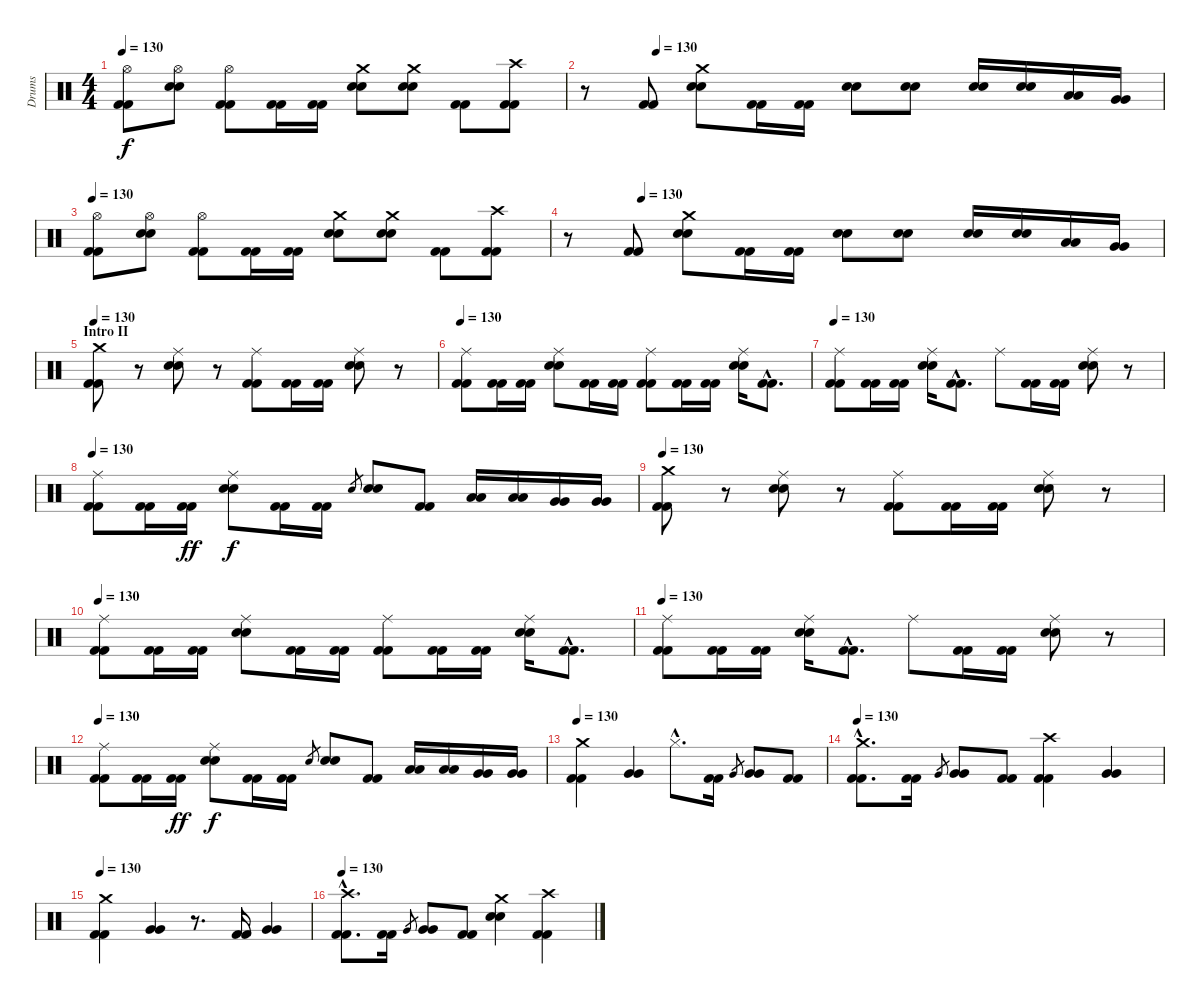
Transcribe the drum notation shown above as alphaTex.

\track ("Drums" "Drums") {instrument percussion}
\staff {score}
\articulation defaults
\ts (4 4)
\tempo 130
\clef neutral
\ks c
("Hi-Hat (open)" "Kick (hit) 2" "Kick (hit) 2").8{dy f} ("Hi-Hat (open)" "Snare (hit) 2" "Snare (hit) 2").8 ("Hi-Hat (open)" "Kick (hit) 2" "Kick (hit) 2").8 ("Kick (hit) 2" "Kick (hit) 2").16 ("Kick (hit) 2" "Kick (hit) 2").16 ("Crash medium (hit)" "Snare (hit) 2" "Snare (hit) 2").8 ("Crash medium (hit)" "Snare (hit) 2" "Snare (hit) 2").8 ("Kick (hit) 2" "Kick (hit) 2").8 ("Crash high (hit)" "Kick (hit) 2" "Kick (hit) 2").8 |
\tempo (130 0.125)
r.8 ("Kick (hit) 2" "Kick (hit) 2").8 ("Crash medium (hit)" "Snare (hit) 2" "Snare (hit) 2").8 ("Kick (hit) 2" "Kick (hit) 2").16 ("Kick (hit) 2" "Kick (hit) 2").16 ("Snare (hit) 2" "Snare (hit) 2").8 ("Snare (hit) 2" "Snare (hit) 2").8 ("Snare (hit) 2" "Snare (hit) 2").16 ("Snare (hit) 2" "Snare (hit) 2").16 ("Low Tom (hit)" "Low Tom (hit)").16 ("Very Low Tom (hit)" "Very Low Tom (hit)").16 |
\tempo 130
("Hi-Hat (open)" "Kick (hit) 2" "Kick (hit) 2").8 ("Hi-Hat (open)" "Snare (hit) 2" "Snare (hit) 2").8 ("Hi-Hat (open)" "Kick (hit) 2" "Kick (hit) 2").8 ("Kick (hit) 2" "Kick (hit) 2").16 ("Kick (hit) 2" "Kick (hit) 2").16 ("Crash medium (hit)" "Snare (hit) 2" "Snare (hit) 2").8 ("Crash medium (hit)" "Snare (hit) 2" "Snare (hit) 2").8 ("Kick (hit) 2" "Kick (hit) 2").8 ("Crash high (hit)" "Kick (hit) 2" "Kick (hit) 2").8 |
\tempo (130 0.125)
r.8 ("Kick (hit) 2" "Kick (hit) 2").8 ("Crash medium (hit)" "Snare (hit) 2" "Snare (hit) 2").8 ("Kick (hit) 2" "Kick (hit) 2").16 ("Kick (hit) 2" "Kick (hit) 2").16 ("Snare (hit) 2" "Snare (hit) 2").8 ("Snare (hit) 2" "Snare (hit) 2").8 ("Snare (hit) 2" "Snare (hit) 2").16 ("Snare (hit) 2" "Snare (hit) 2").16 ("Low Tom (hit)" "Low Tom (hit)").16 ("Very Low Tom (hit)" "Very Low Tom (hit)").16 |
\section ("" "Intro II")
\tempo 130
("Crash medium (hit)" "Kick (hit) 2" "Kick (hit) 2").8 r.8 ("Ride (middle)" "Snare (hit) 2" "Snare (hit) 2").8 r.8 ("Ride (middle)" "Kick (hit) 2" "Kick (hit) 2").8 ("Kick (hit) 2" "Kick (hit) 2").16 ("Kick (hit) 2" "Kick (hit) 2").16 ("Ride (middle)" "Snare (hit) 2" "Snare (hit) 2").8 r.8 |
\tempo 130
("Ride (middle)" "Kick (hit) 2" "Kick (hit) 2").8 ("Kick (hit) 2" "Kick (hit) 2").16 ("Kick (hit) 2" "Kick (hit) 2").16 ("Ride (middle)" "Snare (hit) 2" "Snare (hit) 2").8 ("Kick (hit) 2" "Kick (hit) 2").16 ("Kick (hit) 2" "Kick (hit) 2").16 ("Ride (middle)" "Kick (hit) 2" "Kick (hit) 2").8 ("Kick (hit) 2" "Kick (hit) 2").16 ("Kick (hit) 2" "Kick (hit) 2").16 ("Ride (middle)" "Snare (hit) 2" "Snare (hit) 2").16 ("Kick (hit) 2"{hac} "Kick (hit) 2"{hac}).8{d} |
\tempo 130
("Ride (middle)" "Kick (hit) 2" "Kick (hit) 2").8 ("Kick (hit) 2" "Kick (hit) 2").16 ("Kick (hit) 2" "Kick (hit) 2").16 ("Ride (middle)" "Snare (hit) 2" "Snare (hit) 2").16 ("Kick (hit) 2"{hac} "Kick (hit) 2"{hac}).8{d} "Ride (middle)".8 ("Kick (hit) 2" "Kick (hit) 2").16 ("Kick (hit) 2" "Kick (hit) 2").16 ("Ride (middle)" "Snare (hit) 2" "Snare (hit) 2").8 r.8 |
\tempo 130
("Ride (middle)" "Kick (hit) 2" "Kick (hit) 2").8 ("Kick (hit) 2" "Kick (hit) 2").16 ("Kick (hit) 2" "Kick (hit) 2").16{dy ff} ("Ride (middle)" "Snare (hit) 2" "Snare (hit) 2").8{dy f} ("Kick (hit) 2" "Kick (hit) 2").16 ("Kick (hit) 2" "Kick (hit) 2").16 "Snare (hit) 2".8{gr} ("Snare (hit) 2" "Snare (hit) 2").8 ("Kick (hit) 2" "Kick (hit) 2").8 ("Low Tom (hit)" "Low Tom (hit)").16 ("Low Tom (hit)" "Low Tom (hit)").16 ("Very Low Tom (hit)" "Very Low Tom (hit)").16 ("Very Low Tom (hit)" "Very Low Tom (hit)").16 |
\tempo 130
("Crash medium (hit)" "Kick (hit) 2" "Kick (hit) 2").8 r.8 ("Ride (middle)" "Snare (hit) 2" "Snare (hit) 2").8 r.8 ("Ride (middle)" "Kick (hit) 2" "Kick (hit) 2").8 ("Kick (hit) 2" "Kick (hit) 2").16 ("Kick (hit) 2" "Kick (hit) 2").16 ("Ride (middle)" "Snare (hit) 2" "Snare (hit) 2").8 r.8 |
\tempo 130
("Ride (middle)" "Kick (hit) 2" "Kick (hit) 2").8 ("Kick (hit) 2" "Kick (hit) 2").16 ("Kick (hit) 2" "Kick (hit) 2").16 ("Ride (middle)" "Snare (hit) 2" "Snare (hit) 2").8 ("Kick (hit) 2" "Kick (hit) 2").16 ("Kick (hit) 2" "Kick (hit) 2").16 ("Ride (middle)" "Kick (hit) 2" "Kick (hit) 2").8 ("Kick (hit) 2" "Kick (hit) 2").16 ("Kick (hit) 2" "Kick (hit) 2").16 ("Ride (middle)" "Snare (hit) 2" "Snare (hit) 2").16 ("Kick (hit) 2"{hac} "Kick (hit) 2"{hac}).8{d} |
\tempo 130
("Ride (middle)" "Kick (hit) 2" "Kick (hit) 2").8 ("Kick (hit) 2" "Kick (hit) 2").16 ("Kick (hit) 2" "Kick (hit) 2").16 ("Ride (middle)" "Snare (hit) 2" "Snare (hit) 2").16 ("Kick (hit) 2"{hac} "Kick (hit) 2"{hac}).8{d} "Ride (middle)".8 ("Kick (hit) 2" "Kick (hit) 2").16 ("Kick (hit) 2" "Kick (hit) 2").16 ("Ride (middle)" "Snare (hit) 2" "Snare (hit) 2").8 r.8 |
\tempo 130
("Ride (middle)" "Kick (hit) 2" "Kick (hit) 2").8 ("Kick (hit) 2" "Kick (hit) 2").16 ("Kick (hit) 2" "Kick (hit) 2").16{dy ff} ("Ride (middle)" "Snare (hit) 2" "Snare (hit) 2").8{dy f} ("Kick (hit) 2" "Kick (hit) 2").16 ("Kick (hit) 2" "Kick (hit) 2").16 "Snare (hit) 2".8{gr} ("Snare (hit) 2" "Snare (hit) 2").8 ("Kick (hit) 2" "Kick (hit) 2").8 ("Low Tom (hit)" "Low Tom (hit)").16 ("Low Tom (hit)" "Low Tom (hit)").16 ("Very Low Tom (hit)" "Very Low Tom (hit)").16 ("Very Low Tom (hit)" "Very Low Tom (hit)").16 |
\tempo 130
("Crash medium (hit)" "Kick (hit) 2" "Kick (hit) 2").4 ("Very Low Tom (hit)" "Very Low Tom (hit)").4 "Hi-Hat (closed)"{hac}.8{d} ("Kick (hit) 2" "Kick (hit) 2").16 "Very Low Tom (hit)".8{gr} ("Very Low Tom (hit)" "Very Low Tom (hit)").8 ("Kick (hit) 2" "Kick (hit) 2").8 |
\tempo 130
("Crash medium (hit)"{hac} "Kick (hit) 2"{hac} "Kick (hit) 2"{hac}).8{d} ("Kick (hit) 2" "Kick (hit) 2").16 "Very Low Tom (hit)".8{gr} ("Very Low Tom (hit)" "Very Low Tom (hit)").8 ("Kick (hit) 2" "Kick (hit) 2").8 ("Crash high (hit)" "Kick (hit) 2" "Kick (hit) 2").4 ("Very Low Tom (hit)" "Very Low Tom (hit)").4 |
\tempo 130
("Crash medium (hit)" "Kick (hit) 2" "Kick (hit) 2").4 ("Very Low Tom (hit)" "Very Low Tom (hit)").4 r.8{d} ("Kick (hit) 2" "Kick (hit) 2").16 ("Very Low Tom (hit)" "Very Low Tom (hit)").4 |
\tempo 130
("Crash high (hit)"{hac} "Kick (hit) 2"{hac} "Kick (hit) 2"{hac}).8{d} ("Kick (hit) 2" "Kick (hit) 2").16 "Very Low Tom (hit)".8{gr} ("Very Low Tom (hit)" "Very Low Tom (hit)").8 ("Kick (hit) 2" "Kick (hit) 2").8 ("Crash medium (hit)" "Snare (hit) 2" "Snare (hit) 2").4 ("Crash high (hit)" "Kick (hit) 2" "Kick (hit) 2").4
